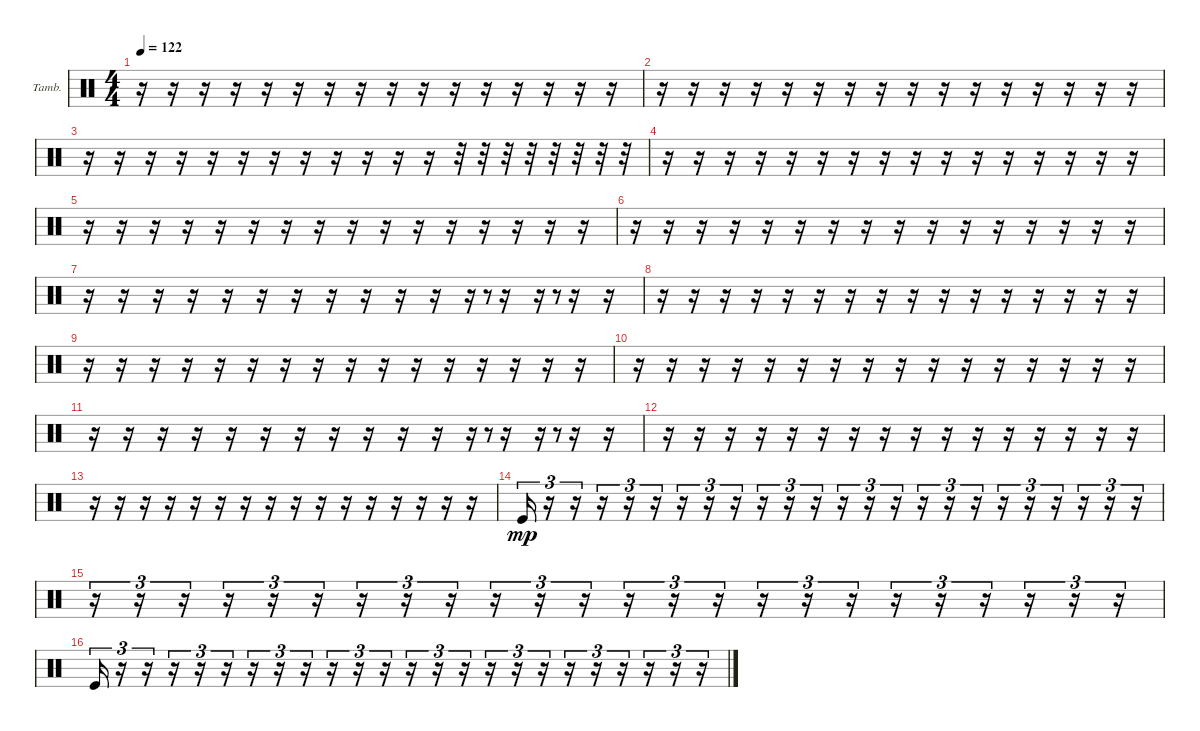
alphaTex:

\bracketExtendMode groupsimilarinstruments
\firstSystemTrackNameOrientation horizontal
\otherSystemsTrackNameOrientation horizontal
\track ("Tambourine" "Tamb.") {instrument percussion}
\staff {score}
\articulation defaults
\ts (4 4)
\tempo 122
\clef neutral
\ks c
r.16{dy mp} r.16 r.16 r.16 r.16 r.16 r.16 r.16 r.16 r.16 r.16 r.16 r.16 r.16 r.16 r.16 |
r.16 r.16 r.16 r.16 r.16 r.16 r.16 r.16 r.16 r.16 r.16 r.16 r.16 r.16 r.16 r.16 |
r.16 r.16 r.16 r.16 r.16 r.16 r.16 r.16 r.16 r.16 r.16 r.16 r.32 r.32 r.32 r.32 r.32 r.32 r.32 r.32 |
r.16 r.16 r.16 r.16 r.16 r.16 r.16 r.16 r.16 r.16 r.16 r.16 r.16 r.16 r.16 r.16 |
r.16 r.16 r.16 r.16 r.16 r.16 r.16 r.16 r.16 r.16 r.16 r.16 r.16 r.16 r.16 r.16 |
r.16 r.16 r.16 r.16 r.16 r.16 r.16 r.16 r.16 r.16 r.16 r.16 r.16 r.16 r.16 r.16 |
r.16 r.16 r.16 r.16 r.16 r.16 r.16 r.16 r.16 r.16 r.16 r.16 r.8{gr} r.16 r.16 r.8{gr} r.16 r.16 |
r.16 r.16 r.16 r.16 r.16 r.16 r.16 r.16 r.16 r.16 r.16 r.16 r.16 r.16 r.16 r.16 |
r.16 r.16 r.16 r.16 r.16 r.16 r.16 r.16 r.16 r.16 r.16 r.16 r.16 r.16 r.16 r.16 |
r.16 r.16 r.16 r.16 r.16 r.16 r.16 r.16 r.16 r.16 r.16 r.16 r.16 r.16 r.16 r.16 |
r.16 r.16 r.16 r.16 r.16 r.16 r.16 r.16 r.16 r.16 r.16 r.16 r.8{gr} r.16 r.16 r.8{gr} r.16 r.16 |
r.16 r.16 r.16 r.16 r.16 r.16 r.16 r.16 r.16 r.16 r.16 r.16 r.16 r.16 r.16 r.16 |
r.16 r.16 r.16 r.16 r.16 r.16 r.16 r.16 r.16 r.16 r.16 r.16 r.16 r.16 r.16 r.16 |
"Kick (hit)".16{tu (3 2)} r.16{tu (3 2)} r.16{tu (3 2)} r.16{tu (3 2)} r.16{tu (3 2)} r.16{tu (3 2)} r.16{tu (3 2)} r.16{tu (3 2)} r.16{tu (3 2)} r.16{tu (3 2)} r.16{tu (3 2)} r.16{tu (3 2)} r.16{tu (3 2)} r.16{tu (3 2)} r.16{tu (3 2)} r.16{tu (3 2)} r.16{tu (3 2)} r.16{tu (3 2)} r.16{tu (3 2)} r.16{tu (3 2)} r.16{tu (3 2)} r.16{tu (3 2)} r.16{tu (3 2)} r.16{tu (3 2)} |
r.16{tu (3 2)} r.16{tu (3 2)} r.16{tu (3 2)} r.16{tu (3 2)} r.16{tu (3 2)} r.16{tu (3 2)} r.16{tu (3 2)} r.16{tu (3 2)} r.16{tu (3 2)} r.16{tu (3 2)} r.16{tu (3 2)} r.16{tu (3 2)} r.16{tu (3 2)} r.16{tu (3 2)} r.16{tu (3 2)} r.16{tu (3 2)} r.16{tu (3 2)} r.16{tu (3 2)} r.16{tu (3 2)} r.16{tu (3 2)} r.16{tu (3 2)} r.16{tu (3 2)} r.16{tu (3 2)} r.16{tu (3 2)} |
"Kick (hit)".16{tu (3 2)} r.16{tu (3 2)} r.16{tu (3 2)} r.16{tu (3 2)} r.16{tu (3 2)} r.16{tu (3 2)} r.16{tu (3 2)} r.16{tu (3 2)} r.16{tu (3 2)} r.16{tu (3 2)} r.16{tu (3 2)} r.16{tu (3 2)} r.16{tu (3 2)} r.16{tu (3 2)} r.16{tu (3 2)} r.16{tu (3 2)} r.16{tu (3 2)} r.16{tu (3 2)} r.16{tu (3 2)} r.16{tu (3 2)} r.16{tu (3 2)} r.16{tu (3 2)} r.16{tu (3 2)} r.16{tu (3 2)}
